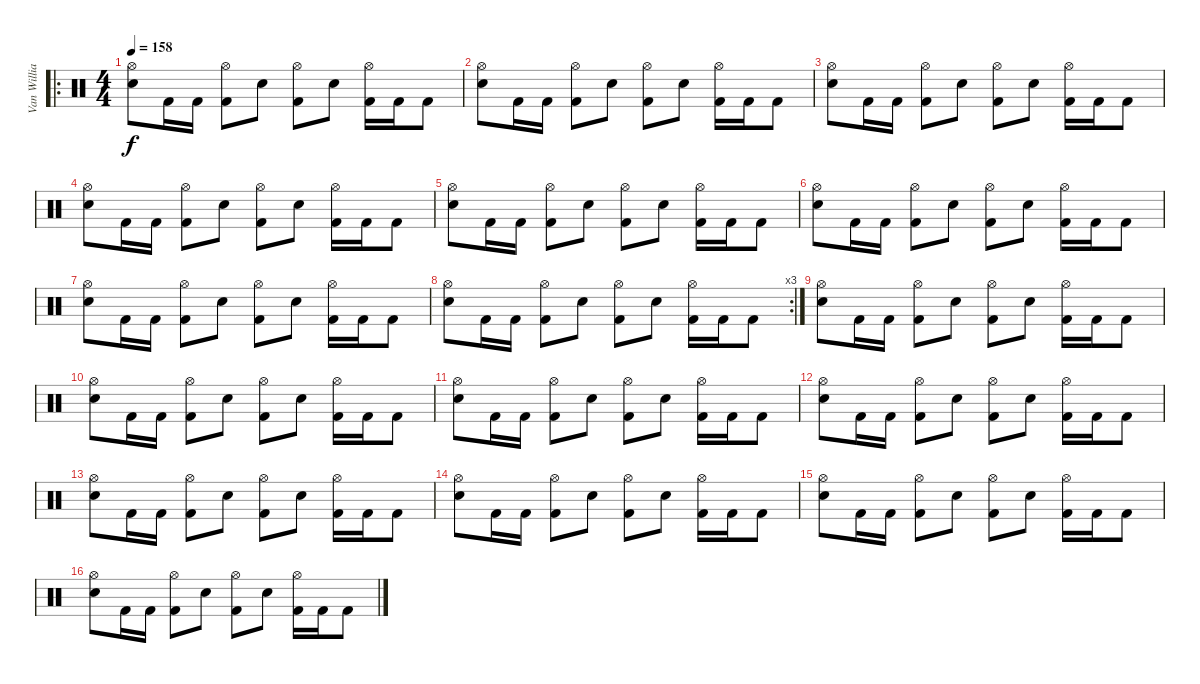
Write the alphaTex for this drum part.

\track ("Van Williams" "Van Willia") {instrument percussion}
\staff {score}
\articulation defaults
\ro
\ts (4 4)
\tempo 158
\clef neutral
\ks c
("Hi-Hat (open)" "Electric Snare (hit)").8{dy f} "Kick (hit) 2".16 "Kick (hit) 2".16 ("Hi-Hat (open)" "Kick (hit) 2").8 "Electric Snare (hit)".8 ("Hi-Hat (open)" "Kick (hit) 2").8 "Electric Snare (hit)".8 ("Hi-Hat (open)" "Kick (hit) 2").16 "Kick (hit) 2".16 "Kick (hit) 2".8 |
("Hi-Hat (open)" "Electric Snare (hit)").8 "Kick (hit) 2".16 "Kick (hit) 2".16 ("Hi-Hat (open)" "Kick (hit) 2").8 "Electric Snare (hit)".8 ("Hi-Hat (open)" "Kick (hit) 2").8 "Electric Snare (hit)".8 ("Hi-Hat (open)" "Kick (hit) 2").16 "Kick (hit) 2".16 "Kick (hit) 2".8 |
("Hi-Hat (open)" "Electric Snare (hit)").8 "Kick (hit) 2".16 "Kick (hit) 2".16 ("Hi-Hat (open)" "Kick (hit) 2").8 "Electric Snare (hit)".8 ("Hi-Hat (open)" "Kick (hit) 2").8 "Electric Snare (hit)".8 ("Hi-Hat (open)" "Kick (hit) 2").16 "Kick (hit) 2".16 "Kick (hit) 2".8 |
("Hi-Hat (open)" "Electric Snare (hit)").8 "Kick (hit) 2".16 "Kick (hit) 2".16 ("Hi-Hat (open)" "Kick (hit) 2").8 "Electric Snare (hit)".8 ("Hi-Hat (open)" "Kick (hit) 2").8 "Electric Snare (hit)".8 ("Hi-Hat (open)" "Kick (hit) 2").16 "Kick (hit) 2".16 "Kick (hit) 2".8 |
("Hi-Hat (open)" "Electric Snare (hit)").8 "Kick (hit) 2".16 "Kick (hit) 2".16 ("Hi-Hat (open)" "Kick (hit) 2").8 "Electric Snare (hit)".8 ("Hi-Hat (open)" "Kick (hit) 2").8 "Electric Snare (hit)".8 ("Hi-Hat (open)" "Kick (hit) 2").16 "Kick (hit) 2".16 "Kick (hit) 2".8 |
("Hi-Hat (open)" "Electric Snare (hit)").8 "Kick (hit) 2".16 "Kick (hit) 2".16 ("Hi-Hat (open)" "Kick (hit) 2").8 "Electric Snare (hit)".8 ("Hi-Hat (open)" "Kick (hit) 2").8 "Electric Snare (hit)".8 ("Hi-Hat (open)" "Kick (hit) 2").16 "Kick (hit) 2".16 "Kick (hit) 2".8 |
("Hi-Hat (open)" "Electric Snare (hit)").8 "Kick (hit) 2".16 "Kick (hit) 2".16 ("Hi-Hat (open)" "Kick (hit) 2").8 "Electric Snare (hit)".8 ("Hi-Hat (open)" "Kick (hit) 2").8 "Electric Snare (hit)".8 ("Hi-Hat (open)" "Kick (hit) 2").16 "Kick (hit) 2".16 "Kick (hit) 2".8 |
\rc 3
("Hi-Hat (open)" "Electric Snare (hit)").8 "Kick (hit) 2".16 "Kick (hit) 2".16 ("Hi-Hat (open)" "Kick (hit) 2").8 "Electric Snare (hit)".8 ("Hi-Hat (open)" "Kick (hit) 2").8 "Electric Snare (hit)".8 ("Hi-Hat (open)" "Kick (hit) 2").16 "Kick (hit) 2".16 "Kick (hit) 2".8 |
("Hi-Hat (open)" "Electric Snare (hit)").8 "Kick (hit) 2".16 "Kick (hit) 2".16 ("Hi-Hat (open)" "Kick (hit) 2").8 "Electric Snare (hit)".8 ("Hi-Hat (open)" "Kick (hit) 2").8 "Electric Snare (hit)".8 ("Hi-Hat (open)" "Kick (hit) 2").16 "Kick (hit) 2".16 "Kick (hit) 2".8 |
("Hi-Hat (open)" "Electric Snare (hit)").8 "Kick (hit) 2".16 "Kick (hit) 2".16 ("Hi-Hat (open)" "Kick (hit) 2").8 "Electric Snare (hit)".8 ("Hi-Hat (open)" "Kick (hit) 2").8 "Electric Snare (hit)".8 ("Hi-Hat (open)" "Kick (hit) 2").16 "Kick (hit) 2".16 "Kick (hit) 2".8 |
("Hi-Hat (open)" "Electric Snare (hit)").8 "Kick (hit) 2".16 "Kick (hit) 2".16 ("Hi-Hat (open)" "Kick (hit) 2").8 "Electric Snare (hit)".8 ("Hi-Hat (open)" "Kick (hit) 2").8 "Electric Snare (hit)".8 ("Hi-Hat (open)" "Kick (hit) 2").16 "Kick (hit) 2".16 "Kick (hit) 2".8 |
("Hi-Hat (open)" "Electric Snare (hit)").8 "Kick (hit) 2".16 "Kick (hit) 2".16 ("Hi-Hat (open)" "Kick (hit) 2").8 "Electric Snare (hit)".8 ("Hi-Hat (open)" "Kick (hit) 2").8 "Electric Snare (hit)".8 ("Hi-Hat (open)" "Kick (hit) 2").16 "Kick (hit) 2".16 "Kick (hit) 2".8 |
("Hi-Hat (open)" "Electric Snare (hit)").8 "Kick (hit) 2".16 "Kick (hit) 2".16 ("Hi-Hat (open)" "Kick (hit) 2").8 "Electric Snare (hit)".8 ("Hi-Hat (open)" "Kick (hit) 2").8 "Electric Snare (hit)".8 ("Hi-Hat (open)" "Kick (hit) 2").16 "Kick (hit) 2".16 "Kick (hit) 2".8 |
("Hi-Hat (open)" "Electric Snare (hit)").8 "Kick (hit) 2".16 "Kick (hit) 2".16 ("Hi-Hat (open)" "Kick (hit) 2").8 "Electric Snare (hit)".8 ("Hi-Hat (open)" "Kick (hit) 2").8 "Electric Snare (hit)".8 ("Hi-Hat (open)" "Kick (hit) 2").16 "Kick (hit) 2".16 "Kick (hit) 2".8 |
("Hi-Hat (open)" "Electric Snare (hit)").8 "Kick (hit) 2".16 "Kick (hit) 2".16 ("Hi-Hat (open)" "Kick (hit) 2").8 "Electric Snare (hit)".8 ("Hi-Hat (open)" "Kick (hit) 2").8 "Electric Snare (hit)".8 ("Hi-Hat (open)" "Kick (hit) 2").16 "Kick (hit) 2".16 "Kick (hit) 2".8 |
("Hi-Hat (open)" "Electric Snare (hit)").8 "Kick (hit) 2".16 "Kick (hit) 2".16 ("Hi-Hat (open)" "Kick (hit) 2").8 "Electric Snare (hit)".8 ("Hi-Hat (open)" "Kick (hit) 2").8 "Electric Snare (hit)".8 ("Hi-Hat (open)" "Kick (hit) 2").16 "Kick (hit) 2".16 "Kick (hit) 2".8
